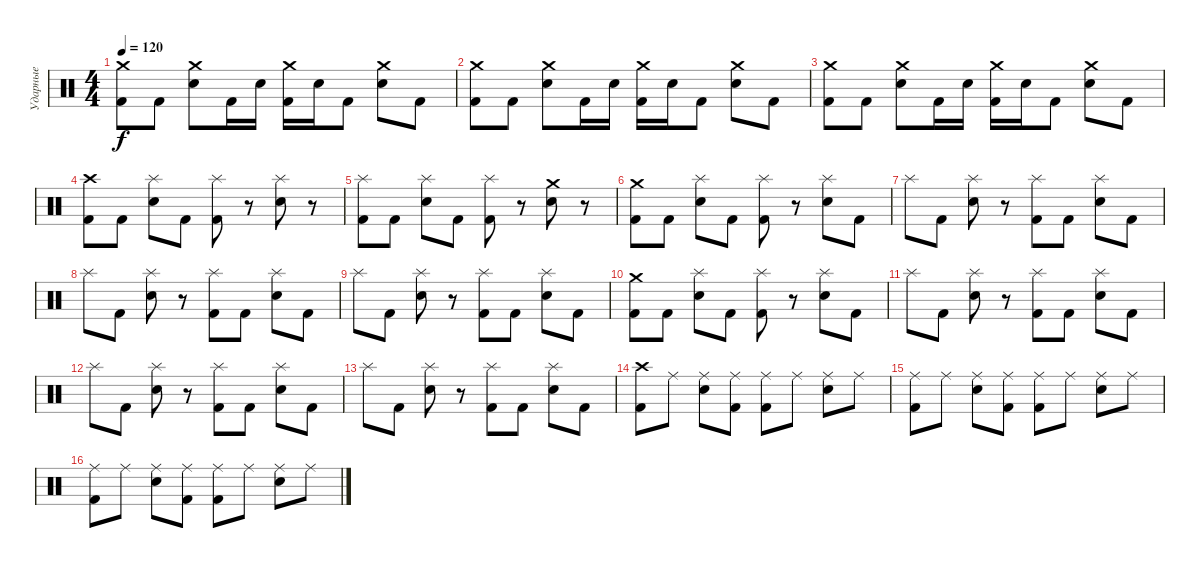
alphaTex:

\track ("Ударные" "Ударные") {instrument percussion}
\staff {score}
\articulation defaults
\ts (4 4)
\tempo 120
\clef neutral
\ks c
("Crash medium (hit)" "Kick (hit) 2").8{dy f} "Kick (hit) 2".8 ("Crash medium (hit)" "Electric Snare (hit)").8 "Kick (hit) 2".16 "Electric Snare (hit)".16 ("Crash medium (hit)" "Kick (hit) 2").16 "Electric Snare (hit)".16 "Kick (hit) 2".8 ("Crash medium (hit)" "Electric Snare (hit)").8 "Kick (hit) 2".8 |
("Crash medium (hit)" "Kick (hit) 2").8 "Kick (hit) 2".8 ("Crash medium (hit)" "Electric Snare (hit)").8 "Kick (hit) 2".16 "Electric Snare (hit)".16 ("Crash medium (hit)" "Kick (hit) 2").16 "Electric Snare (hit)".16 "Kick (hit) 2".8 ("Crash medium (hit)" "Electric Snare (hit)").8 "Kick (hit) 2".8 |
("Crash medium (hit)" "Kick (hit) 2").8 "Kick (hit) 2".8 ("Crash medium (hit)" "Electric Snare (hit)").8 "Kick (hit) 2".16 "Electric Snare (hit)".16 ("Crash medium (hit)" "Kick (hit) 2").16 "Electric Snare (hit)".16 "Kick (hit) 2".8 ("Crash medium (hit)" "Electric Snare (hit)").8 "Kick (hit) 2".8 |
("Crash high (hit)" "Kick (hit) 2").8 "Kick (hit) 2".8 ("Splash (hit)" "Electric Snare (hit)").8 "Kick (hit) 2".8 ("Splash (hit)" "Kick (hit) 2").8 r.8 ("Splash (hit)" "Electric Snare (hit)").8 r.8 |
("Splash (hit)" "Kick (hit) 2").8 "Kick (hit) 2".8 ("Splash (hit)" "Electric Snare (hit)").8 "Kick (hit) 2".8 ("Splash (hit)" "Kick (hit) 2").8 r.8 ("Crash medium (hit)" "Electric Snare (hit)").8 r.8 |
("Crash medium (hit)" "Kick (hit) 2").8 "Kick (hit) 2".8 ("Splash (hit)" "Electric Snare (hit)").8 "Kick (hit) 2".8 ("Splash (hit)" "Kick (hit) 2").8 r.8 ("Splash (hit)" "Electric Snare (hit)").8 "Kick (hit) 2".8 |
"Splash (hit)".8 "Kick (hit) 2".8 ("Splash (hit)" "Electric Snare (hit)").8 r.8 ("Splash (hit)" "Kick (hit) 2").8 "Kick (hit) 2".8 ("Splash (hit)" "Electric Snare (hit)").8 "Kick (hit) 2".8 |
"Splash (hit)".8 "Kick (hit) 2".8 ("Splash (hit)" "Electric Snare (hit)").8 r.8 ("Splash (hit)" "Kick (hit) 2").8 "Kick (hit) 2".8 ("Splash (hit)" "Electric Snare (hit)").8 "Kick (hit) 2".8 |
"Splash (hit)".8 "Kick (hit) 2".8 ("Splash (hit)" "Electric Snare (hit)").8 r.8 ("Splash (hit)" "Kick (hit) 2").8 "Kick (hit) 2".8 ("Splash (hit)" "Electric Snare (hit)").8 "Kick (hit) 2".8 |
("Crash medium (hit)" "Kick (hit) 2").8 "Kick (hit) 2".8 ("Splash (hit)" "Electric Snare (hit)").8 "Kick (hit) 2".8 ("Splash (hit)" "Kick (hit) 2").8 r.8 ("Splash (hit)" "Electric Snare (hit)").8 "Kick (hit) 2".8 |
"Splash (hit)".8 "Kick (hit) 2".8 ("Splash (hit)" "Electric Snare (hit)").8 r.8 ("Splash (hit)" "Kick (hit) 2").8 "Kick (hit) 2".8 ("Splash (hit)" "Electric Snare (hit)").8 "Kick (hit) 2".8 |
"Splash (hit)".8 "Kick (hit) 2".8 ("Splash (hit)" "Electric Snare (hit)").8 r.8 ("Splash (hit)" "Kick (hit) 2").8 "Kick (hit) 2".8 ("Splash (hit)" "Electric Snare (hit)").8 "Kick (hit) 2".8 |
"Splash (hit)".8 "Kick (hit) 2".8 ("Splash (hit)" "Electric Snare (hit)").8 r.8 ("Splash (hit)" "Kick (hit) 2").8 "Kick (hit) 2".8 ("Splash (hit)" "Electric Snare (hit)").8 "Kick (hit) 2".8 |
("Crash high (hit)" "Kick (hit) 2").8 "Ride (middle)".8 ("Ride (middle)" "Electric Snare (hit)").8 ("Ride (middle)" "Kick (hit) 2").8 ("Ride (middle)" "Kick (hit) 2").8 "Ride (middle)".8 ("Ride (middle)" "Electric Snare (hit)").8 "Ride (middle)".8 |
("Ride (middle)" "Kick (hit) 2").8 "Ride (middle)".8 ("Ride (middle)" "Electric Snare (hit)").8 ("Ride (middle)" "Kick (hit) 2").8 ("Ride (middle)" "Kick (hit) 2").8 "Ride (middle)".8 ("Ride (middle)" "Electric Snare (hit)").8 "Ride (middle)".8 |
("Ride (middle)" "Kick (hit) 2").8 "Ride (middle)".8 ("Ride (middle)" "Electric Snare (hit)").8 ("Ride (middle)" "Kick (hit) 2").8 ("Ride (middle)" "Kick (hit) 2").8 "Ride (middle)".8 ("Ride (middle)" "Electric Snare (hit)").8 "Ride (middle)".8
